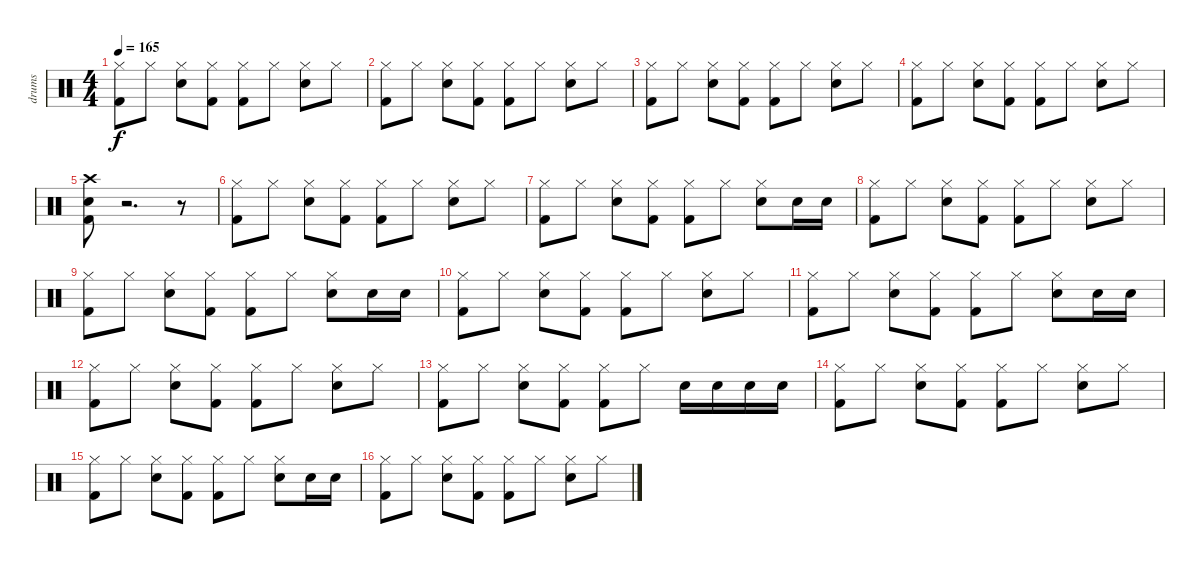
\track ("drums" "drums") {instrument percussion}
\staff {score}
\articulation defaults
\ts (4 4)
\tempo 165
\clef neutral
\ks c
("Hi-Hat (closed)" "Kick (hit) 2").8{dy f} "Hi-Hat (closed)".8 ("Snare (hit) 2" "Hi-Hat (closed)").8 ("Hi-Hat (closed)" "Kick (hit) 2").8 ("Hi-Hat (closed)" "Kick (hit) 2").8 "Hi-Hat (closed)".8 ("Snare (hit) 2" "Hi-Hat (closed)").8 "Hi-Hat (closed)".8 |
("Hi-Hat (closed)" "Kick (hit) 2").8 "Hi-Hat (closed)".8 ("Snare (hit) 2" "Hi-Hat (closed)").8 ("Hi-Hat (closed)" "Kick (hit) 2").8 ("Hi-Hat (closed)" "Kick (hit) 2").8 "Hi-Hat (closed)".8 ("Snare (hit) 2" "Hi-Hat (closed)").8 "Hi-Hat (closed)".8 |
("Hi-Hat (closed)" "Kick (hit) 2").8 "Hi-Hat (closed)".8 ("Snare (hit) 2" "Hi-Hat (closed)").8 ("Hi-Hat (closed)" "Kick (hit) 2").8 ("Hi-Hat (closed)" "Kick (hit) 2").8 "Hi-Hat (closed)".8 ("Snare (hit) 2" "Hi-Hat (closed)").8 "Hi-Hat (closed)".8 |
("Hi-Hat (closed)" "Kick (hit) 2").8 "Hi-Hat (closed)".8 ("Snare (hit) 2" "Hi-Hat (closed)").8 ("Hi-Hat (closed)" "Kick (hit) 2").8 ("Hi-Hat (closed)" "Kick (hit) 2").8 "Hi-Hat (closed)".8 ("Snare (hit) 2" "Hi-Hat (closed)").8 "Hi-Hat (closed)".8 |
("Crash high (hit)" "Snare (hit) 2" "Kick (hit) 2").8 r.2{d} r.8 |
("Hi-Hat (closed)" "Kick (hit) 2").8 "Hi-Hat (closed)".8 ("Snare (hit) 2" "Hi-Hat (closed)").8 ("Hi-Hat (closed)" "Kick (hit) 2").8 ("Hi-Hat (closed)" "Kick (hit) 2").8 "Hi-Hat (closed)".8 ("Snare (hit) 2" "Hi-Hat (closed)").8 "Hi-Hat (closed)".8 |
("Hi-Hat (closed)" "Kick (hit) 2").8 "Hi-Hat (closed)".8 ("Snare (hit) 2" "Hi-Hat (closed)").8 ("Hi-Hat (closed)" "Kick (hit) 2").8 ("Hi-Hat (closed)" "Kick (hit) 2").8 "Hi-Hat (closed)".8 ("Snare (hit) 2" "Hi-Hat (closed)").8 "Snare (hit) 2".16 "Snare (hit) 2".16 |
("Hi-Hat (closed)" "Kick (hit) 2").8 "Hi-Hat (closed)".8 ("Snare (hit) 2" "Hi-Hat (closed)").8 ("Hi-Hat (closed)" "Kick (hit) 2").8 ("Hi-Hat (closed)" "Kick (hit) 2").8 "Hi-Hat (closed)".8 ("Snare (hit) 2" "Hi-Hat (closed)").8 "Hi-Hat (closed)".8 |
("Hi-Hat (closed)" "Kick (hit) 2").8 "Hi-Hat (closed)".8 ("Snare (hit) 2" "Hi-Hat (closed)").8 ("Hi-Hat (closed)" "Kick (hit) 2").8 ("Hi-Hat (closed)" "Kick (hit) 2").8 "Hi-Hat (closed)".8 ("Snare (hit) 2" "Hi-Hat (closed)").8 "Snare (hit) 2".16 "Snare (hit) 2".16 |
("Hi-Hat (closed)" "Kick (hit) 2").8 "Hi-Hat (closed)".8 ("Snare (hit) 2" "Hi-Hat (closed)").8 ("Hi-Hat (closed)" "Kick (hit) 2").8 ("Hi-Hat (closed)" "Kick (hit) 2").8 "Hi-Hat (closed)".8 ("Snare (hit) 2" "Hi-Hat (closed)").8 "Hi-Hat (closed)".8 |
("Hi-Hat (closed)" "Kick (hit) 2").8 "Hi-Hat (closed)".8 ("Snare (hit) 2" "Hi-Hat (closed)").8 ("Hi-Hat (closed)" "Kick (hit) 2").8 ("Hi-Hat (closed)" "Kick (hit) 2").8 "Hi-Hat (closed)".8 ("Snare (hit) 2" "Hi-Hat (closed)").8 "Snare (hit) 2".16 "Snare (hit) 2".16 |
("Hi-Hat (closed)" "Kick (hit) 2").8 "Hi-Hat (closed)".8 ("Snare (hit) 2" "Hi-Hat (closed)").8 ("Hi-Hat (closed)" "Kick (hit) 2").8 ("Hi-Hat (closed)" "Kick (hit) 2").8 "Hi-Hat (closed)".8 ("Snare (hit) 2" "Hi-Hat (closed)").8 "Hi-Hat (closed)".8 |
("Hi-Hat (closed)" "Kick (hit) 2").8 "Hi-Hat (closed)".8 ("Snare (hit) 2" "Hi-Hat (closed)").8 ("Hi-Hat (closed)" "Kick (hit) 2").8 ("Hi-Hat (closed)" "Kick (hit) 2").8 "Hi-Hat (closed)".8 "Snare (hit) 2".16 "Snare (hit) 2".16 "Snare (hit) 2".16 "Snare (hit) 2".16 |
("Hi-Hat (closed)" "Kick (hit) 2").8 "Hi-Hat (closed)".8 ("Snare (hit) 2" "Hi-Hat (closed)").8 ("Hi-Hat (closed)" "Kick (hit) 2").8 ("Hi-Hat (closed)" "Kick (hit) 2").8 "Hi-Hat (closed)".8 ("Snare (hit) 2" "Hi-Hat (closed)").8 "Hi-Hat (closed)".8 |
("Hi-Hat (closed)" "Kick (hit) 2").8 "Hi-Hat (closed)".8 ("Snare (hit) 2" "Hi-Hat (closed)").8 ("Hi-Hat (closed)" "Kick (hit) 2").8 ("Hi-Hat (closed)" "Kick (hit) 2").8 "Hi-Hat (closed)".8 ("Snare (hit) 2" "Hi-Hat (closed)").8 "Snare (hit) 2".16 "Snare (hit) 2".16 |
("Hi-Hat (closed)" "Kick (hit) 2").8 "Hi-Hat (closed)".8 ("Snare (hit) 2" "Hi-Hat (closed)").8 ("Hi-Hat (closed)" "Kick (hit) 2").8 ("Hi-Hat (closed)" "Kick (hit) 2").8 "Hi-Hat (closed)".8 ("Snare (hit) 2" "Hi-Hat (closed)").8 "Hi-Hat (closed)".8
